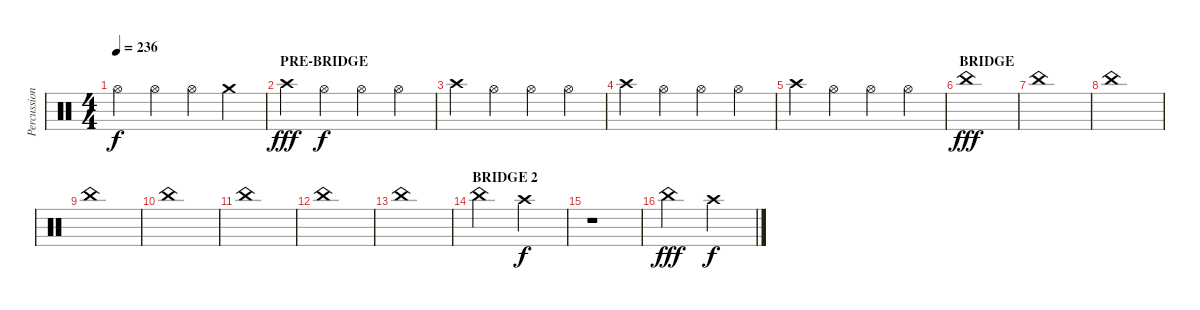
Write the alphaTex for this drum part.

\track ("Percussions" "Percussion") {instrument percussion}
\staff {score}
\articulation defaults
\ts (4 4)
\tempo 236
\clef neutral
\ks c "Hi-Hat (open)".4{dy f} "Hi-Hat (open)".4 "Hi-Hat (open)".4 "Crash medium (hit)".4
|
\section ("" "PRE-BRIDGE")
"Crash high (hit)".4{dy fff} "Hi-Hat (open)".4{dy f} "Hi-Hat (open)".4 "Hi-Hat (open)".4 |
"Crash high (hit)".4 "Hi-Hat (open)".4 "Hi-Hat (open)".4 "Hi-Hat (open)".4 |
"Crash high (hit)".4 "Hi-Hat (open)".4 "Hi-Hat (open)".4 "Hi-Hat (open)".4 |
"Crash high (hit)".4 "Hi-Hat (open)".4 "Hi-Hat (open)".4 "Hi-Hat (open)".4 |
\section ("" "BRIDGE")
"China (hit)".1{dy fff} |
"China (hit)".1 |
"China (hit)".1 |
"China (hit)".1 |
"China (hit)".1 |
"China (hit)".1 |
"China (hit)".1 |
"China (hit)".1 |
\section ("" "BRIDGE 2")
"China (hit)".2 "Crash high (hit)".2{dy f} |
r.1 |
"China (hit)".2{dy fff} "Crash high (hit)".2{dy f}
